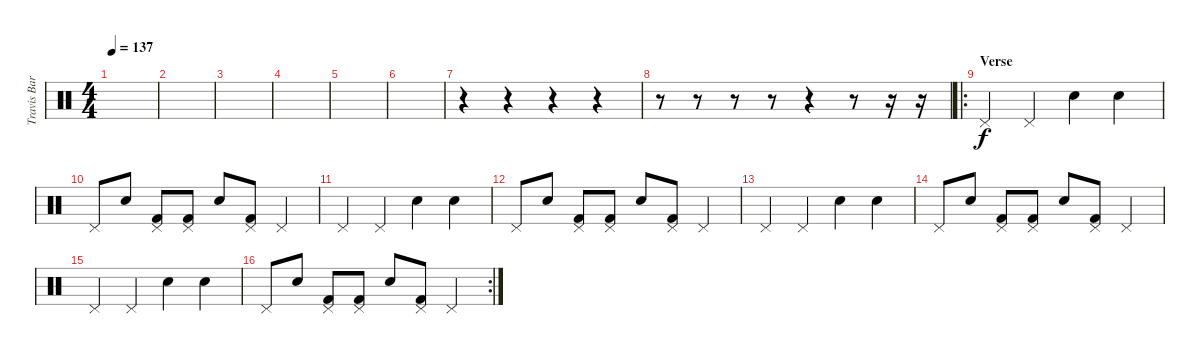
\track ("Travis Barker" "Travis Bar") {instrument percussion}
\staff {score}
\articulation defaults
\ts (4 4)
\tempo 137
\clef neutral
\ks c
|
|
|
|
|
|
r.4{volume 5} r.4 r.4 r.4 |
r.8{volume 11} r.8 r.8 r.8 r.4 r.8 r.16 r.16 |
\ro
\section ("" "Verse")
"Pedal Hi-Hat (hit)".4 "Pedal Hi-Hat (hit)".4 "Snare (hit) 2".4 "Snare (hit) 2".4 |
"Pedal Hi-Hat (hit)".8 "Snare (hit) 2".8 ("Pedal Hi-Hat (hit)" "Kick (hit) 2").8 ("Pedal Hi-Hat (hit)" "Kick (hit) 2").8 "Snare (hit) 2".8 ("Pedal Hi-Hat (hit)" "Kick (hit) 2").8 "Pedal Hi-Hat (hit)".4 |
"Pedal Hi-Hat (hit)".4 "Pedal Hi-Hat (hit)".4 "Snare (hit) 2".4 "Snare (hit) 2".4 |
"Pedal Hi-Hat (hit)".8 "Snare (hit) 2".8 ("Pedal Hi-Hat (hit)" "Kick (hit) 2").8 ("Pedal Hi-Hat (hit)" "Kick (hit) 2").8 "Snare (hit) 2".8 ("Pedal Hi-Hat (hit)" "Kick (hit) 2").8 "Pedal Hi-Hat (hit)".4 |
"Pedal Hi-Hat (hit)".4 "Pedal Hi-Hat (hit)".4 "Snare (hit) 2".4 "Snare (hit) 2".4 |
"Pedal Hi-Hat (hit)".8 "Snare (hit) 2".8 ("Pedal Hi-Hat (hit)" "Kick (hit) 2").8 ("Pedal Hi-Hat (hit)" "Kick (hit) 2").8 "Snare (hit) 2".8 ("Pedal Hi-Hat (hit)" "Kick (hit) 2").8 "Pedal Hi-Hat (hit)".4 |
"Pedal Hi-Hat (hit)".4 "Pedal Hi-Hat (hit)".4 "Snare (hit) 2".4 "Snare (hit) 2".4 |
\rc 2 "Pedal Hi-Hat (hit)".8 "Snare (hit) 2".8
("Pedal Hi-Hat (hit)" "Kick (hit) 2").8 ("Pedal Hi-Hat (hit)" "Kick (hit) 2").8 "Snare (hit) 2".8 ("Pedal Hi-Hat (hit)" "Kick (hit) 2").8 "Pedal Hi-Hat (hit)".4
